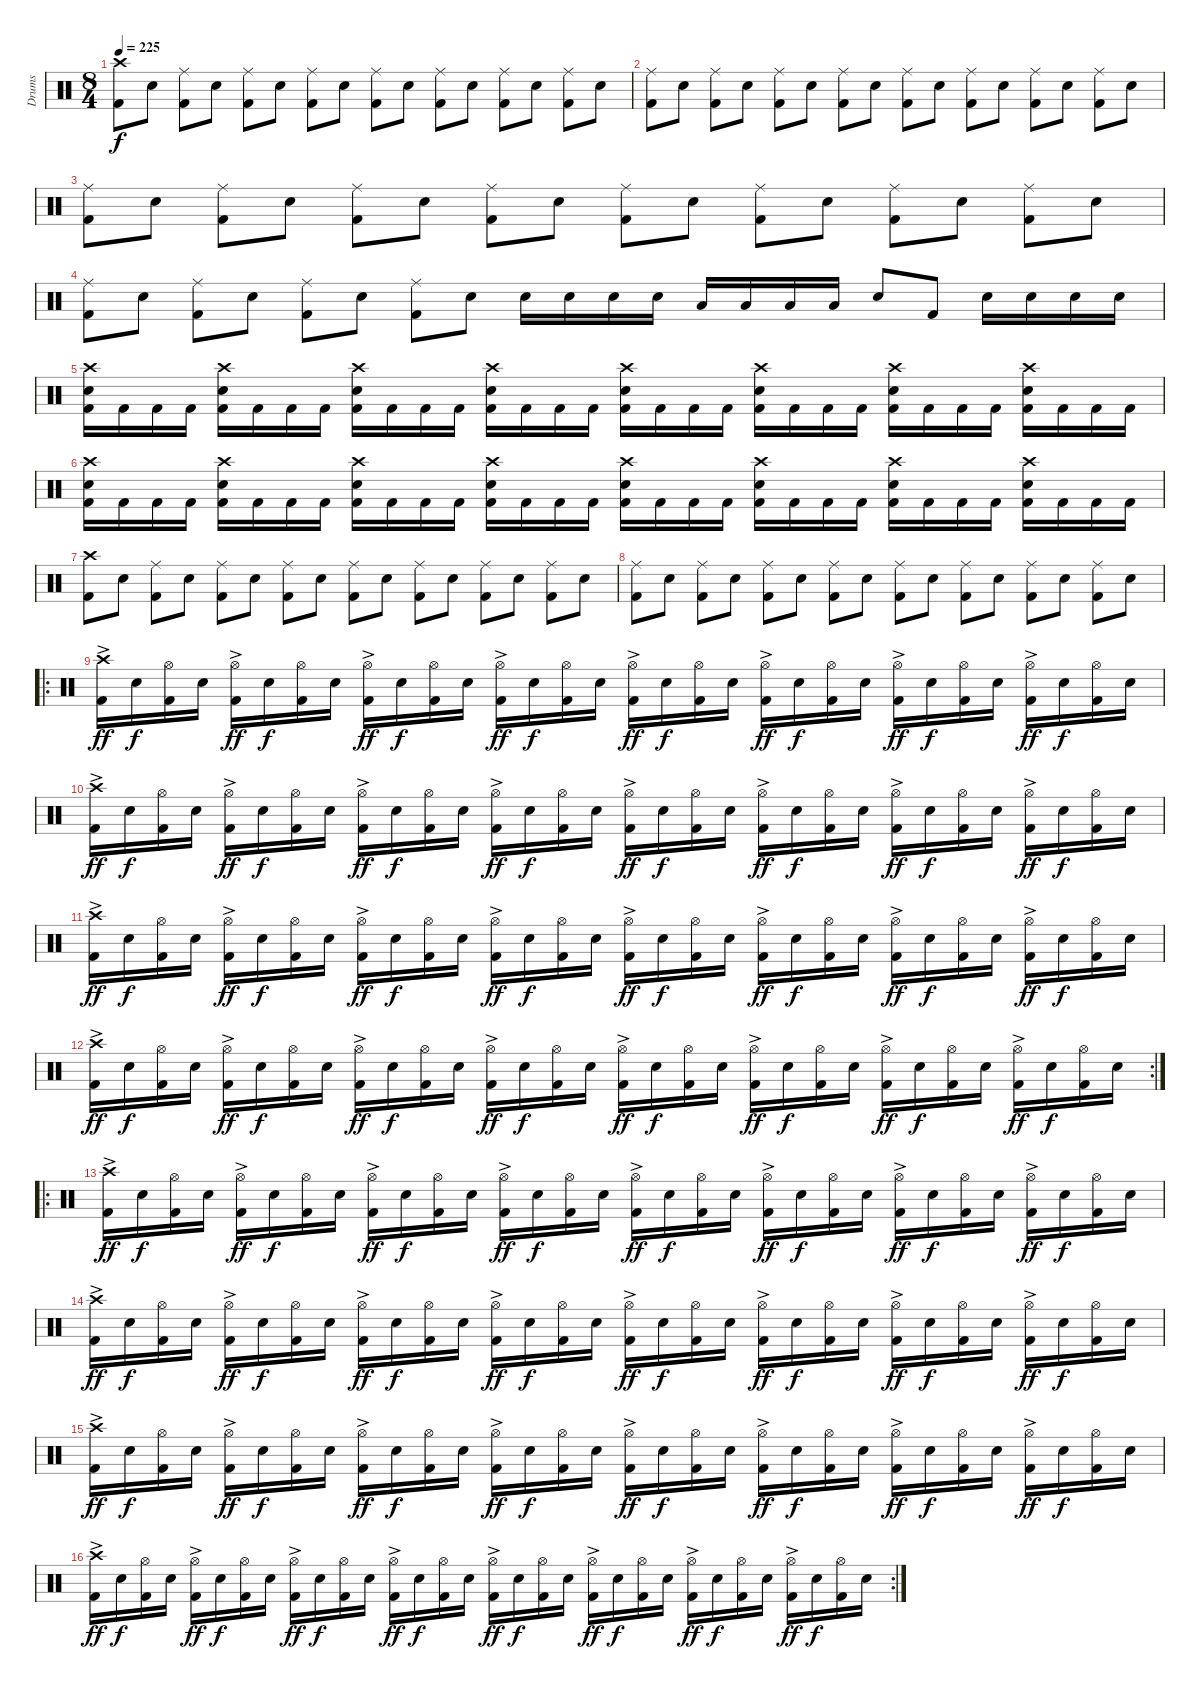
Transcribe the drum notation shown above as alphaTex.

\track ("Drums" "Drums") {instrument percussion}
\staff {score}
\articulation defaults
\ts (8 4)
\tempo 225
\clef neutral
\ks c
("Crash high (hit)" "Kick (hit) 2").8{dy f} "Electric Snare (hit)".8 ("Ride (middle)" "Kick (hit) 2").8 "Electric Snare (hit)".8 ("Ride (middle)" "Kick (hit) 2").8 "Electric Snare (hit)".8 ("Ride (middle)" "Kick (hit) 2").8 "Electric Snare (hit)".8 ("Ride (middle)" "Kick (hit) 2").8 "Electric Snare (hit)".8 ("Ride (middle)" "Kick (hit) 2").8 "Electric Snare (hit)".8 ("Ride (middle)" "Kick (hit) 2").8 "Electric Snare (hit)".8 ("Ride (middle)" "Kick (hit) 2").8 "Electric Snare (hit)".8 |
("Ride (middle)" "Kick (hit) 2").8 "Electric Snare (hit)".8 ("Ride (middle)" "Kick (hit) 2").8 "Electric Snare (hit)".8 ("Ride (middle)" "Kick (hit) 2").8 "Electric Snare (hit)".8 ("Ride (middle)" "Kick (hit) 2").8 "Electric Snare (hit)".8 ("Ride (middle)" "Kick (hit) 2").8 "Electric Snare (hit)".8 ("Ride (middle)" "Kick (hit) 2").8 "Electric Snare (hit)".8 ("Ride (middle)" "Kick (hit) 2").8 "Electric Snare (hit)".8 ("Ride (middle)" "Kick (hit) 2").8 "Electric Snare (hit)".8 |
("Ride (middle)" "Kick (hit) 2").8 "Electric Snare (hit)".8 ("Ride (middle)" "Kick (hit) 2").8 "Electric Snare (hit)".8 ("Ride (middle)" "Kick (hit) 2").8 "Electric Snare (hit)".8 ("Ride (middle)" "Kick (hit) 2").8 "Electric Snare (hit)".8 ("Ride (middle)" "Kick (hit) 2").8 "Electric Snare (hit)".8 ("Ride (middle)" "Kick (hit) 2").8 "Electric Snare (hit)".8 ("Ride (middle)" "Kick (hit) 2").8 "Electric Snare (hit)".8 ("Ride (middle)" "Kick (hit) 2").8 "Electric Snare (hit)".8 |
("Ride (middle)" "Kick (hit) 2").8 "Electric Snare (hit)".8 ("Ride (middle)" "Kick (hit) 2").8 "Electric Snare (hit)".8 ("Ride (middle)" "Kick (hit) 2").8 "Electric Snare (hit)".8 ("Ride (middle)" "Kick (hit) 2").8 "Electric Snare (hit)".8 "Electric Snare (hit)".16 "Electric Snare (hit)".16 "Electric Snare (hit)".16 "Electric Snare (hit)".16 "Low Tom (hit)".16 "Low Tom (hit)".16 "Low Tom (hit)".16 "Low Tom (hit)".16 "Electric Snare (hit)".8 "Kick (hit) 2".8 "Electric Snare (hit)".16 "Electric Snare (hit)".16 "Electric Snare (hit)".16 "Electric Snare (hit)".16 |
("Crash high (hit)" "Electric Snare (hit)" "Kick (hit) 2").16 "Kick (hit) 2".16 "Kick (hit) 2".16 "Kick (hit) 2".16 ("Crash high (hit)" "Electric Snare (hit)" "Kick (hit) 2").16 "Kick (hit) 2".16 "Kick (hit) 2".16 "Kick (hit) 2".16 ("Crash high (hit)" "Electric Snare (hit)" "Kick (hit) 2").16 "Kick (hit) 2".16 "Kick (hit) 2".16 "Kick (hit) 2".16 ("Crash high (hit)" "Electric Snare (hit)" "Kick (hit) 2").16 "Kick (hit) 2".16 "Kick (hit) 2".16 "Kick (hit) 2".16 ("Crash high (hit)" "Electric Snare (hit)" "Kick (hit) 2").16 "Kick (hit) 2".16 "Kick (hit) 2".16 "Kick (hit) 2".16 ("Crash high (hit)" "Electric Snare (hit)" "Kick (hit) 2").16 "Kick (hit) 2".16 "Kick (hit) 2".16 "Kick (hit) 2".16 ("Crash high (hit)" "Electric Snare (hit)" "Kick (hit) 2").16 "Kick (hit) 2".16 "Kick (hit) 2".16 "Kick (hit) 2".16 ("Crash high (hit)" "Electric Snare (hit)" "Kick (hit) 2").16 "Kick (hit) 2".16 "Kick (hit) 2".16 "Kick (hit) 2".16 |
("Crash high (hit)" "Electric Snare (hit)" "Kick (hit) 2").16 "Kick (hit) 2".16 "Kick (hit) 2".16 "Kick (hit) 2".16 ("Crash high (hit)" "Electric Snare (hit)" "Kick (hit) 2").16 "Kick (hit) 2".16 "Kick (hit) 2".16 "Kick (hit) 2".16 ("Crash high (hit)" "Electric Snare (hit)" "Kick (hit) 2").16 "Kick (hit) 2".16 "Kick (hit) 2".16 "Kick (hit) 2".16 ("Crash high (hit)" "Electric Snare (hit)" "Kick (hit) 2").16 "Kick (hit) 2".16 "Kick (hit) 2".16 "Kick (hit) 2".16 ("Crash high (hit)" "Electric Snare (hit)" "Kick (hit) 2").16 "Kick (hit) 2".16 "Kick (hit) 2".16 "Kick (hit) 2".16 ("Crash high (hit)" "Electric Snare (hit)" "Kick (hit) 2").16 "Kick (hit) 2".16 "Kick (hit) 2".16 "Kick (hit) 2".16 ("Crash high (hit)" "Electric Snare (hit)" "Kick (hit) 2").16 "Kick (hit) 2".16 "Kick (hit) 2".16 "Kick (hit) 2".16 ("Crash high (hit)" "Electric Snare (hit)" "Kick (hit) 2").16 "Kick (hit) 2".16 "Kick (hit) 2".16 "Kick (hit) 2".16 |
("Crash high (hit)" "Kick (hit) 2").8 "Electric Snare (hit)".8 ("Ride (middle)" "Kick (hit) 2").8 "Electric Snare (hit)".8 ("Ride (middle)" "Kick (hit) 2").8 "Electric Snare (hit)".8 ("Ride (middle)" "Kick (hit) 2").8 "Electric Snare (hit)".8 ("Ride (middle)" "Kick (hit) 2").8 "Electric Snare (hit)".8 ("Ride (middle)" "Kick (hit) 2").8 "Electric Snare (hit)".8 ("Ride (middle)" "Kick (hit) 2").8 "Electric Snare (hit)".8 ("Ride (middle)" "Kick (hit) 2").8 "Electric Snare (hit)".8 |
("Ride (middle)" "Kick (hit) 2").8 "Electric Snare (hit)".8 ("Ride (middle)" "Kick (hit) 2").8 "Electric Snare (hit)".8 ("Ride (middle)" "Kick (hit) 2").8 "Electric Snare (hit)".8 ("Ride (middle)" "Kick (hit) 2").8 "Electric Snare (hit)".8 ("Ride (middle)" "Kick (hit) 2").8 "Electric Snare (hit)".8 ("Ride (middle)" "Kick (hit) 2").8 "Electric Snare (hit)".8 ("Ride (middle)" "Kick (hit) 2").8 "Electric Snare (hit)".8 ("Ride (middle)" "Kick (hit) 2").8 "Electric Snare (hit)".8 |
\ro
("Crash high (hit)"{ac} "Kick (hit) 2").16{dy ff} "Electric Snare (hit)".16{dy f} ("Hi-Hat (open)" "Kick (hit) 2").16 "Electric Snare (hit)".16 ("Hi-Hat (open)"{ac} "Kick (hit) 2").16{dy ff} "Electric Snare (hit)".16{dy f} ("Hi-Hat (open)" "Kick (hit) 2").16 "Electric Snare (hit)".16 ("Hi-Hat (open)"{ac} "Kick (hit) 2").16{dy ff} "Electric Snare (hit)".16{dy f} ("Hi-Hat (open)" "Kick (hit) 2").16 "Electric Snare (hit)".16 ("Hi-Hat (open)"{ac} "Kick (hit) 2").16{dy ff} "Electric Snare (hit)".16{dy f} ("Hi-Hat (open)" "Kick (hit) 2").16 "Electric Snare (hit)".16 ("Hi-Hat (open)"{ac} "Kick (hit) 2").16{dy ff} "Electric Snare (hit)".16{dy f} ("Hi-Hat (open)" "Kick (hit) 2").16 "Electric Snare (hit)".16 ("Hi-Hat (open)"{ac} "Kick (hit) 2").16{dy ff} "Electric Snare (hit)".16{dy f} ("Hi-Hat (open)" "Kick (hit) 2").16 "Electric Snare (hit)".16 ("Hi-Hat (open)"{ac} "Kick (hit) 2").16{dy ff} "Electric Snare (hit)".16{dy f} ("Hi-Hat (open)" "Kick (hit) 2").16 "Electric Snare (hit)".16 ("Hi-Hat (open)"{ac} "Kick (hit) 2").16{dy ff} "Electric Snare (hit)".16{dy f} ("Hi-Hat (open)" "Kick (hit) 2").16 "Electric Snare (hit)".16 |
("Crash high (hit)"{ac} "Kick (hit) 2").16{dy ff} "Electric Snare (hit)".16{dy f} ("Hi-Hat (open)" "Kick (hit) 2").16 "Electric Snare (hit)".16 ("Hi-Hat (open)"{ac} "Kick (hit) 2").16{dy ff} "Electric Snare (hit)".16{dy f} ("Hi-Hat (open)" "Kick (hit) 2").16 "Electric Snare (hit)".16 ("Hi-Hat (open)"{ac} "Kick (hit) 2").16{dy ff} "Electric Snare (hit)".16{dy f} ("Hi-Hat (open)" "Kick (hit) 2").16 "Electric Snare (hit)".16 ("Hi-Hat (open)"{ac} "Kick (hit) 2").16{dy ff} "Electric Snare (hit)".16{dy f} ("Hi-Hat (open)" "Kick (hit) 2").16 "Electric Snare (hit)".16 ("Hi-Hat (open)"{ac} "Kick (hit) 2").16{dy ff} "Electric Snare (hit)".16{dy f} ("Hi-Hat (open)" "Kick (hit) 2").16 "Electric Snare (hit)".16 ("Hi-Hat (open)"{ac} "Kick (hit) 2").16{dy ff} "Electric Snare (hit)".16{dy f} ("Hi-Hat (open)" "Kick (hit) 2").16 "Electric Snare (hit)".16 ("Hi-Hat (open)"{ac} "Kick (hit) 2").16{dy ff} "Electric Snare (hit)".16{dy f} ("Hi-Hat (open)" "Kick (hit) 2").16 "Electric Snare (hit)".16 ("Hi-Hat (open)"{ac} "Kick (hit) 2").16{dy ff} "Electric Snare (hit)".16{dy f} ("Hi-Hat (open)" "Kick (hit) 2").16 "Electric Snare (hit)".16 |
("Crash high (hit)"{ac} "Kick (hit) 2").16{dy ff} "Electric Snare (hit)".16{dy f} ("Hi-Hat (open)" "Kick (hit) 2").16 "Electric Snare (hit)".16 ("Hi-Hat (open)"{ac} "Kick (hit) 2").16{dy ff} "Electric Snare (hit)".16{dy f} ("Hi-Hat (open)" "Kick (hit) 2").16 "Electric Snare (hit)".16 ("Hi-Hat (open)"{ac} "Kick (hit) 2").16{dy ff} "Electric Snare (hit)".16{dy f} ("Hi-Hat (open)" "Kick (hit) 2").16 "Electric Snare (hit)".16 ("Hi-Hat (open)"{ac} "Kick (hit) 2").16{dy ff} "Electric Snare (hit)".16{dy f} ("Hi-Hat (open)" "Kick (hit) 2").16 "Electric Snare (hit)".16 ("Hi-Hat (open)"{ac} "Kick (hit) 2").16{dy ff} "Electric Snare (hit)".16{dy f} ("Hi-Hat (open)" "Kick (hit) 2").16 "Electric Snare (hit)".16 ("Hi-Hat (open)"{ac} "Kick (hit) 2").16{dy ff} "Electric Snare (hit)".16{dy f} ("Hi-Hat (open)" "Kick (hit) 2").16 "Electric Snare (hit)".16 ("Hi-Hat (open)"{ac} "Kick (hit) 2").16{dy ff} "Electric Snare (hit)".16{dy f} ("Hi-Hat (open)" "Kick (hit) 2").16 "Electric Snare (hit)".16 ("Hi-Hat (open)"{ac} "Kick (hit) 2").16{dy ff} "Electric Snare (hit)".16{dy f} ("Hi-Hat (open)" "Kick (hit) 2").16 "Electric Snare (hit)".16 |
\rc 2
("Crash high (hit)"{ac} "Kick (hit) 2").16{dy ff} "Electric Snare (hit)".16{dy f} ("Hi-Hat (open)" "Kick (hit) 2").16 "Electric Snare (hit)".16 ("Hi-Hat (open)"{ac} "Kick (hit) 2").16{dy ff} "Electric Snare (hit)".16{dy f} ("Hi-Hat (open)" "Kick (hit) 2").16 "Electric Snare (hit)".16 ("Hi-Hat (open)"{ac} "Kick (hit) 2").16{dy ff} "Electric Snare (hit)".16{dy f} ("Hi-Hat (open)" "Kick (hit) 2").16 "Electric Snare (hit)".16 ("Hi-Hat (open)"{ac} "Kick (hit) 2").16{dy ff} "Electric Snare (hit)".16{dy f} ("Hi-Hat (open)" "Kick (hit) 2").16 "Electric Snare (hit)".16 ("Hi-Hat (open)"{ac} "Kick (hit) 2").16{dy ff} "Electric Snare (hit)".16{dy f} ("Hi-Hat (open)" "Kick (hit) 2").16 "Electric Snare (hit)".16 ("Hi-Hat (open)"{ac} "Kick (hit) 2").16{dy ff} "Electric Snare (hit)".16{dy f} ("Hi-Hat (open)" "Kick (hit) 2").16 "Electric Snare (hit)".16 ("Hi-Hat (open)"{ac} "Kick (hit) 2").16{dy ff} "Electric Snare (hit)".16{dy f} ("Hi-Hat (open)" "Kick (hit) 2").16 "Electric Snare (hit)".16 ("Hi-Hat (open)"{ac} "Kick (hit) 2").16{dy ff} "Electric Snare (hit)".16{dy f} ("Hi-Hat (open)" "Kick (hit) 2").16 "Electric Snare (hit)".16 |
\ro
("Crash high (hit)"{ac} "Kick (hit) 2").16{dy ff} "Electric Snare (hit)".16{dy f} ("Hi-Hat (open)" "Kick (hit) 2").16 "Electric Snare (hit)".16 ("Hi-Hat (open)"{ac} "Kick (hit) 2").16{dy ff} "Electric Snare (hit)".16{dy f} ("Hi-Hat (open)" "Kick (hit) 2").16 "Electric Snare (hit)".16 ("Hi-Hat (open)"{ac} "Kick (hit) 2").16{dy ff} "Electric Snare (hit)".16{dy f} ("Hi-Hat (open)" "Kick (hit) 2").16 "Electric Snare (hit)".16 ("Hi-Hat (open)"{ac} "Kick (hit) 2").16{dy ff} "Electric Snare (hit)".16{dy f} ("Hi-Hat (open)" "Kick (hit) 2").16 "Electric Snare (hit)".16 ("Hi-Hat (open)"{ac} "Kick (hit) 2").16{dy ff} "Electric Snare (hit)".16{dy f} ("Hi-Hat (open)" "Kick (hit) 2").16 "Electric Snare (hit)".16 ("Hi-Hat (open)"{ac} "Kick (hit) 2").16{dy ff} "Electric Snare (hit)".16{dy f} ("Hi-Hat (open)" "Kick (hit) 2").16 "Electric Snare (hit)".16 ("Hi-Hat (open)"{ac} "Kick (hit) 2").16{dy ff} "Electric Snare (hit)".16{dy f} ("Hi-Hat (open)" "Kick (hit) 2").16 "Electric Snare (hit)".16 ("Hi-Hat (open)"{ac} "Kick (hit) 2").16{dy ff} "Electric Snare (hit)".16{dy f} ("Hi-Hat (open)" "Kick (hit) 2").16 "Electric Snare (hit)".16 |
("Crash high (hit)"{ac} "Kick (hit) 2").16{dy ff} "Electric Snare (hit)".16{dy f} ("Hi-Hat (open)" "Kick (hit) 2").16 "Electric Snare (hit)".16 ("Hi-Hat (open)"{ac} "Kick (hit) 2").16{dy ff} "Electric Snare (hit)".16{dy f} ("Hi-Hat (open)" "Kick (hit) 2").16 "Electric Snare (hit)".16 ("Hi-Hat (open)"{ac} "Kick (hit) 2").16{dy ff} "Electric Snare (hit)".16{dy f} ("Hi-Hat (open)" "Kick (hit) 2").16 "Electric Snare (hit)".16 ("Hi-Hat (open)"{ac} "Kick (hit) 2").16{dy ff} "Electric Snare (hit)".16{dy f} ("Hi-Hat (open)" "Kick (hit) 2").16 "Electric Snare (hit)".16 ("Hi-Hat (open)"{ac} "Kick (hit) 2").16{dy ff} "Electric Snare (hit)".16{dy f} ("Hi-Hat (open)" "Kick (hit) 2").16 "Electric Snare (hit)".16 ("Hi-Hat (open)"{ac} "Kick (hit) 2").16{dy ff} "Electric Snare (hit)".16{dy f} ("Hi-Hat (open)" "Kick (hit) 2").16 "Electric Snare (hit)".16 ("Hi-Hat (open)"{ac} "Kick (hit) 2").16{dy ff} "Electric Snare (hit)".16{dy f} ("Hi-Hat (open)" "Kick (hit) 2").16 "Electric Snare (hit)".16 ("Hi-Hat (open)"{ac} "Kick (hit) 2").16{dy ff} "Electric Snare (hit)".16{dy f} ("Hi-Hat (open)" "Kick (hit) 2").16 "Electric Snare (hit)".16 |
("Crash high (hit)"{ac} "Kick (hit) 2").16{dy ff} "Electric Snare (hit)".16{dy f} ("Hi-Hat (open)" "Kick (hit) 2").16 "Electric Snare (hit)".16 ("Hi-Hat (open)"{ac} "Kick (hit) 2").16{dy ff} "Electric Snare (hit)".16{dy f} ("Hi-Hat (open)" "Kick (hit) 2").16 "Electric Snare (hit)".16 ("Hi-Hat (open)"{ac} "Kick (hit) 2").16{dy ff} "Electric Snare (hit)".16{dy f} ("Hi-Hat (open)" "Kick (hit) 2").16 "Electric Snare (hit)".16 ("Hi-Hat (open)"{ac} "Kick (hit) 2").16{dy ff} "Electric Snare (hit)".16{dy f} ("Hi-Hat (open)" "Kick (hit) 2").16 "Electric Snare (hit)".16 ("Hi-Hat (open)"{ac} "Kick (hit) 2").16{dy ff} "Electric Snare (hit)".16{dy f} ("Hi-Hat (open)" "Kick (hit) 2").16 "Electric Snare (hit)".16 ("Hi-Hat (open)"{ac} "Kick (hit) 2").16{dy ff} "Electric Snare (hit)".16{dy f} ("Hi-Hat (open)" "Kick (hit) 2").16 "Electric Snare (hit)".16 ("Hi-Hat (open)"{ac} "Kick (hit) 2").16{dy ff} "Electric Snare (hit)".16{dy f} ("Hi-Hat (open)" "Kick (hit) 2").16 "Electric Snare (hit)".16 ("Hi-Hat (open)"{ac} "Kick (hit) 2").16{dy ff} "Electric Snare (hit)".16{dy f} ("Hi-Hat (open)" "Kick (hit) 2").16 "Electric Snare (hit)".16 |
\rc 2
("Crash high (hit)"{ac} "Kick (hit) 2").16{dy ff} "Electric Snare (hit)".16{dy f} ("Hi-Hat (open)" "Kick (hit) 2").16 "Electric Snare (hit)".16 ("Hi-Hat (open)"{ac} "Kick (hit) 2").16{dy ff} "Electric Snare (hit)".16{dy f} ("Hi-Hat (open)" "Kick (hit) 2").16 "Electric Snare (hit)".16 ("Hi-Hat (open)"{ac} "Kick (hit) 2").16{dy ff} "Electric Snare (hit)".16{dy f} ("Hi-Hat (open)" "Kick (hit) 2").16 "Electric Snare (hit)".16 ("Hi-Hat (open)"{ac} "Kick (hit) 2").16{dy ff} "Electric Snare (hit)".16{dy f} ("Hi-Hat (open)" "Kick (hit) 2").16 "Electric Snare (hit)".16 ("Hi-Hat (open)"{ac} "Kick (hit) 2").16{dy ff} "Electric Snare (hit)".16{dy f} ("Hi-Hat (open)" "Kick (hit) 2").16 "Electric Snare (hit)".16 ("Hi-Hat (open)"{ac} "Kick (hit) 2").16{dy ff} "Electric Snare (hit)".16{dy f} ("Hi-Hat (open)" "Kick (hit) 2").16 "Electric Snare (hit)".16 ("Hi-Hat (open)"{ac} "Kick (hit) 2").16{dy ff} "Electric Snare (hit)".16{dy f} ("Hi-Hat (open)" "Kick (hit) 2").16 "Electric Snare (hit)".16 ("Hi-Hat (open)"{ac} "Kick (hit) 2").16{dy ff} "Electric Snare (hit)".16{dy f} ("Hi-Hat (open)" "Kick (hit) 2").16 "Electric Snare (hit)".16
